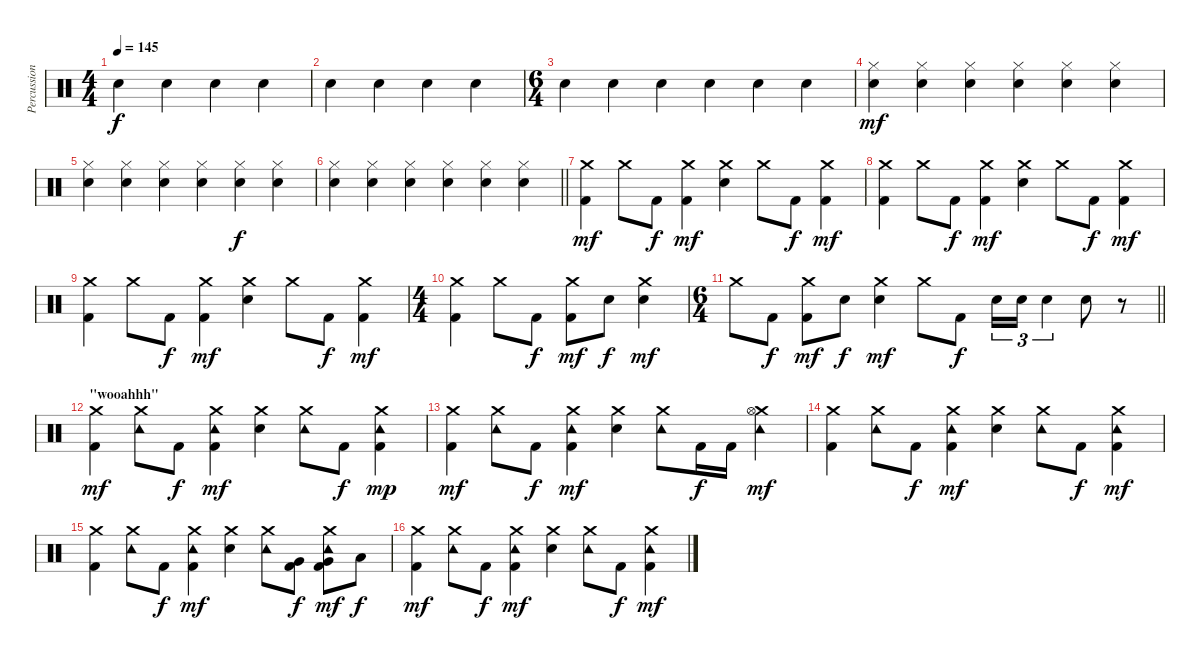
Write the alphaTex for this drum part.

\track ("Percussion" "Percussion") {instrument percussion}
\staff {score}
\articulation defaults
\ts (4 4)
\tempo 145
\clef neutral
\ks c "Hand Clap (hit)".4{dy f} "Hand Clap (hit)".4 "Hand Clap (hit)".4 "Hand Clap (hit)".4
|
"Hand Clap (hit)".4 "Hand Clap (hit)".4 "Hand Clap (hit)".4 "Hand Clap (hit)".4 |
\ts (6 4)
"Hand Clap (hit)".4 "Hand Clap (hit)".4 "Hand Clap (hit)".4 "Hand Clap (hit)".4 "Hand Clap (hit)".4 "Hand Clap (hit)".4 |
("Hand Clap (hit)" "Hi-Hat (closed)").4{dy mf} ("Hand Clap (hit)" "Hi-Hat (closed)").4 ("Hand Clap (hit)" "Hi-Hat (closed)").4 ("Hand Clap (hit)" "Hi-Hat (closed)").4 ("Hand Clap (hit)" "Hi-Hat (closed)").4 ("Hand Clap (hit)" "Hi-Hat (closed)").4 |
("Hand Clap (hit)" "Hi-Hat (closed)").4 ("Hand Clap (hit)" "Hi-Hat (closed)").4 ("Hand Clap (hit)" "Hi-Hat (closed)").4 ("Hand Clap (hit)" "Hi-Hat (closed)").4 ("Hand Clap (hit)" "Hi-Hat (closed)").4{dy f} ("Hand Clap (hit)" "Hi-Hat (closed)").4 |
\barLineRight lightlight
("Hand Clap (hit)" "Hi-Hat (closed)").4 ("Hand Clap (hit)" "Hi-Hat (closed)").4 ("Hand Clap (hit)" "Hi-Hat (closed)").4 ("Hand Clap (hit)" "Hi-Hat (closed)").4 ("Hand Clap (hit)" "Hi-Hat (closed)").4 ("Hand Clap (hit)" "Hi-Hat (closed)").4 |
("Crash medium (hit)" "Kick (hit) 2").4{dy mf} "Crash medium (hit)".8 "Kick (hit) 2".8{dy f} ("Crash medium (hit)" "Kick (hit) 2").4{dy mf} ("Crash medium (hit)" "Snare (hit) 2").4 "Crash medium (hit)".8 "Kick (hit) 2".8{dy f} ("Crash medium (hit)" "Kick (hit) 2").4{dy mf} |
("Crash medium (hit)" "Kick (hit) 2").4 "Crash medium (hit)".8 "Kick (hit) 2".8{dy f} ("Crash medium (hit)" "Kick (hit) 2").4{dy mf} ("Crash medium (hit)" "Snare (hit) 2").4 "Crash medium (hit)".8 "Kick (hit) 2".8{dy f} ("Crash medium (hit)" "Kick (hit) 2").4{dy mf} |
("Crash medium (hit)" "Kick (hit) 2").4 "Crash medium (hit)".8 "Kick (hit) 2".8{dy f} ("Crash medium (hit)" "Kick (hit) 2").4{dy mf} ("Crash medium (hit)" "Snare (hit) 2").4 "Crash medium (hit)".8 "Kick (hit) 2".8{dy f} ("Crash medium (hit)" "Kick (hit) 2").4{dy mf} |
\ts (4 4)
("Crash medium (hit)" "Kick (hit) 2").4 "Crash medium (hit)".8 "Kick (hit) 2".8{dy f} ("Crash medium (hit)" "Kick (hit) 2").8{dy mf} "Snare (hit) 2".8{dy f} ("Crash medium (hit)" "Snare (hit) 2").4{dy mf} |
\ts (6 4)
\barLineRight lightlight "Crash medium (hit)".8 "Kick (hit) 2".8{dy f}
("Crash medium (hit)" "Kick (hit) 2").8{dy mf} "Snare (hit) 2".8{dy f} ("Crash medium (hit)" "Snare (hit) 2").4{dy mf} "Crash medium (hit)".8 "Kick (hit) 2".8{dy f} "Snare (hit) 2".16{tu (3 2)} "Snare (hit) 2".16{tu (3 2)} "Snare (hit) 2".4{tu (3 2)} "Snare (hit) 2".8 r.8 |
\section ("" "\"wooahhh\"")
("Crash medium (hit)" "Kick (hit) 2").4{dy mf} ("Tambourine (hit)" "Crash medium (hit)").8 "Kick (hit) 2".8{dy f} ("Tambourine (hit)" "Crash medium (hit)" "Kick (hit) 2").4{dy mf} ("Crash medium (hit)" "Snare (hit) 2").4 ("Tambourine (hit)" "Crash medium (hit)").8 "Kick (hit) 2".8{dy f} ("Tambourine (hit)" "Crash medium (hit)" "Kick (hit) 2").4{dy mp} |
("Crash medium (hit)" "Kick (hit) 2").4{dy mf} ("Tambourine (hit)" "Crash medium (hit)").8 "Kick (hit) 2".8{dy f} ("Tambourine (hit)" "Crash medium (hit)" "Kick (hit) 2").4{dy mf} ("Crash medium (hit)" "Snare (hit) 2").4 ("Tambourine (hit)" "Crash medium (hit)").8 "Kick (hit) 2".16{dy f} "Kick (hit) 2".16 ("Tambourine (hit)" "Crash medium (hit)" "Hi-Hat (open)").4{dy mf} |
("Crash medium (hit)" "Kick (hit) 2").4 ("Tambourine (hit)" "Crash medium (hit)").8 "Kick (hit) 2".8{dy f} ("Tambourine (hit)" "Crash medium (hit)" "Kick (hit) 2").4{dy mf} ("Crash medium (hit)" "Snare (hit) 2").4 ("Tambourine (hit)" "Crash medium (hit)").8 "Kick (hit) 2".8{dy f} ("Tambourine (hit)" "Crash medium (hit)" "Kick (hit) 2").4{dy mf} |
("Crash medium (hit)" "Kick (hit) 2").4 ("Tambourine (hit)" "Crash medium (hit)").8 "Kick (hit) 2".8{dy f} ("Tambourine (hit)" "Crash medium (hit)" "Kick (hit) 2").4{dy mf} ("Crash medium (hit)" "Snare (hit) 2").4 ("Tambourine (hit)" "Crash medium (hit)").8 ("Very Low Tom (hit)" "Kick (hit) 2").8{dy f} ("Tambourine (hit)" "Crash medium (hit)" "Very Low Tom (hit)" "Kick (hit) 2").8{dy mf} "Low Floor Tom (hit)".8{dy f} |
("Crash medium (hit)" "Kick (hit) 2").4{dy mf} ("Tambourine (hit)" "Crash medium (hit)").8 "Kick (hit) 2".8{dy f} ("Tambourine (hit)" "Crash medium (hit)" "Kick (hit) 2").4{dy mf} ("Crash medium (hit)" "Snare (hit) 2").4 ("Tambourine (hit)" "Crash medium (hit)").8 "Kick (hit) 2".8{dy f} ("Tambourine (hit)" "Crash medium (hit)" "Kick (hit) 2").4{dy mf}
